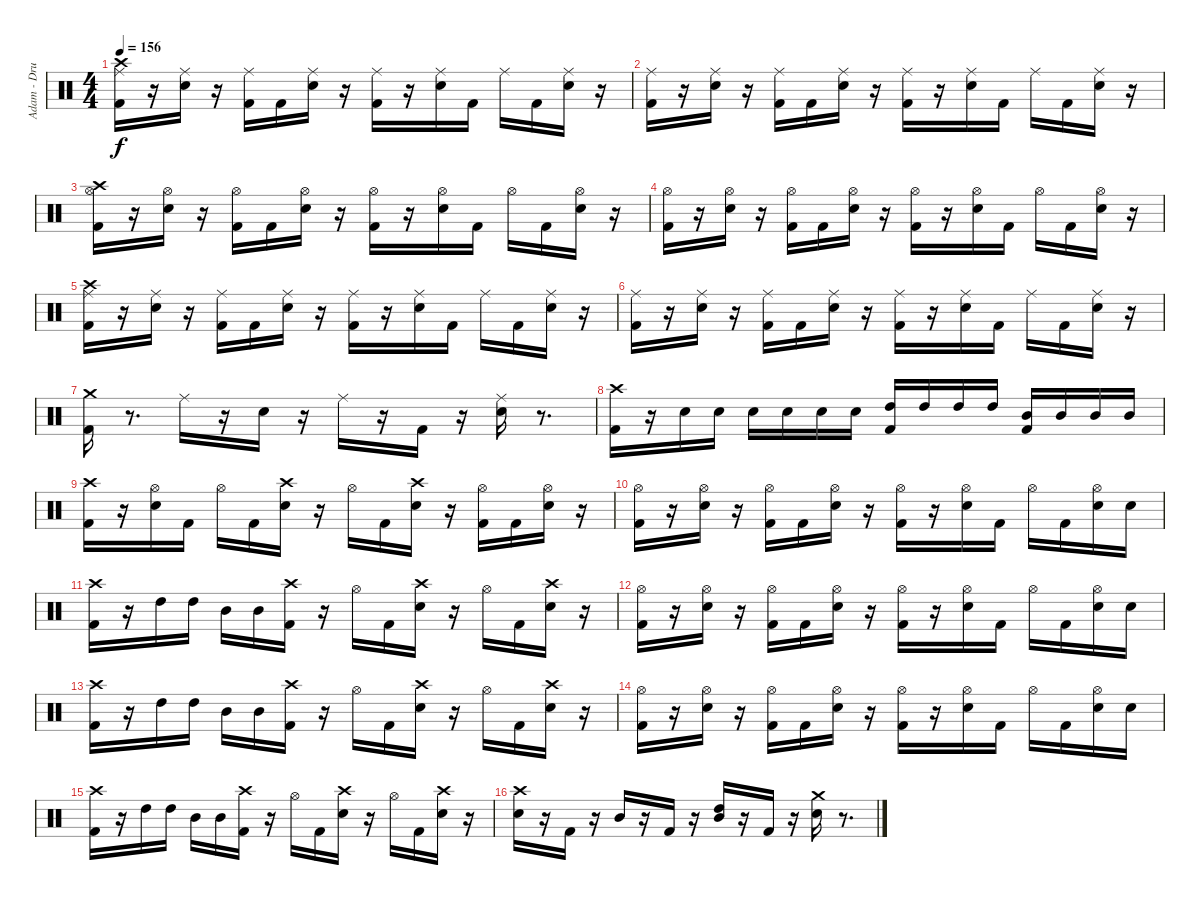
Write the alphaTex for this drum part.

\track ("Adam - Drums" "Adam - Dru") {instrument percussion}
\staff {score}
\articulation defaults
\ts (4 4)
\tempo 156
\clef neutral
\ks c
("Crash high (hit)" "Kick (hit) 2" "Ride (middle)").16{dy f} r.16 ("Snare (hit) 2" "Ride (middle)").16 r.16 ("Kick (hit) 2" "Ride (middle)").16 "Kick (hit) 2".16 ("Snare (hit) 2" "Ride (middle)").16 r.16 ("Ride (middle)" "Kick (hit) 2").16 r.16 ("Snare (hit) 2" "Ride (middle)").16 "Kick (hit) 2".16 "Ride (middle)".16 "Kick (hit) 2".16 ("Snare (hit) 2" "Ride (middle)").16 r.16 |
("Kick (hit) 2" "Ride (middle)").16 r.16 ("Snare (hit) 2" "Ride (middle)").16 r.16 ("Kick (hit) 2" "Ride (middle)").16 "Kick (hit) 2".16 ("Snare (hit) 2" "Ride (middle)").16 r.16 ("Kick (hit) 2" "Ride (middle)").16 r.16 ("Snare (hit) 2" "Ride (middle)").16 "Kick (hit) 2".16 "Ride (middle)".16 "Kick (hit) 2".16 ("Snare (hit) 2" "Ride (middle)").16 r.16 |
("Hi-Hat (open)" "Crash high (hit)" "Kick (hit) 2").16 r.16 ("Hi-Hat (open)" "Snare (hit) 2").16 r.16 ("Hi-Hat (open)" "Kick (hit) 2").16 "Kick (hit) 2".16 ("Hi-Hat (open)" "Snare (hit) 2").16 r.16 ("Hi-Hat (open)" "Kick (hit) 2").16 r.16 ("Hi-Hat (open)" "Snare (hit) 2").16 "Kick (hit) 2".16 "Hi-Hat (open)".16 "Kick (hit) 2".16 ("Hi-Hat (open)" "Snare (hit) 2").16 r.16 |
("Hi-Hat (open)" "Kick (hit) 2").16 r.16 ("Hi-Hat (open)" "Snare (hit) 2").16 r.16 ("Hi-Hat (open)" "Kick (hit) 2").16 "Kick (hit) 2".16 ("Hi-Hat (open)" "Snare (hit) 2").16 r.16 ("Hi-Hat (open)" "Kick (hit) 2").16 r.16 ("Hi-Hat (open)" "Snare (hit) 2").16 "Kick (hit) 2".16 "Hi-Hat (open)".16 "Kick (hit) 2".16 ("Hi-Hat (open)" "Snare (hit) 2").16 r.16 |
("Crash high (hit)" "Kick (hit) 2" "Ride (middle)").16 r.16 ("Snare (hit) 2" "Ride (middle)").16 r.16 ("Kick (hit) 2" "Ride (middle)").16 "Kick (hit) 2".16 ("Snare (hit) 2" "Ride (middle)").16 r.16 ("Ride (middle)" "Kick (hit) 2").16 r.16 ("Snare (hit) 2" "Ride (middle)").16 "Kick (hit) 2".16 "Ride (middle)".16 "Kick (hit) 2".16 ("Snare (hit) 2" "Ride (middle)").16 r.16 |
("Kick (hit) 2" "Ride (middle)").16 r.16 ("Snare (hit) 2" "Ride (middle)").16 r.16 ("Kick (hit) 2" "Ride (middle)").16 "Kick (hit) 2".16 ("Snare (hit) 2" "Ride (middle)").16 r.16 ("Kick (hit) 2" "Ride (middle)").16 r.16 ("Snare (hit) 2" "Ride (middle)").16 "Kick (hit) 2".16 "Ride (middle)".16 "Kick (hit) 2".16 ("Snare (hit) 2" "Ride (middle)").16 r.16 |
("Crash medium (hit)" "Kick (hit) 2").16 r.8{d} "Ride (middle)".16 r.16 "Snare (hit) 2".16 r.16 "Ride (middle)".16 r.16 "Kick (hit) 2".16 r.16 ("Snare (hit) 2" "Ride (middle)").16 r.8{d} |
("Crash high (hit)" "Kick (hit) 2").16 r.16 "Snare (hit) 2".16 "Snare (hit) 2".16 "Snare (hit) 2".16 "Snare (hit) 2".16 "Snare (hit) 2".16 "Snare (hit) 2".16 ("Kick (hit) 2" "High Tom (hit)").16 "High Tom (hit)".16 "High Tom (hit)".16 "High Tom (hit)".16 ("Mid Tom (hit)" "Kick (hit) 2").16 "Mid Tom (hit)".16 "Mid Tom (hit)".16 "Mid Tom (hit)".16 |
("Crash high (hit)" "Kick (hit) 2").16 r.16 ("Snare (hit) 2" "Hi-Hat (open)").16 "Kick (hit) 2".16 "Hi-Hat (open)".16 "Kick (hit) 2".16 ("Crash high (hit)" "Snare (hit) 2").16 r.16 "Hi-Hat (open)".16 "Kick (hit) 2".16 ("Snare (hit) 2" "Crash high (hit)").16 r.16 ("Kick (hit) 2" "Hi-Hat (open)").16 "Kick (hit) 2".16 ("Snare (hit) 2" "Hi-Hat (open)").16 r.16 |
("Kick (hit) 2" "Hi-Hat (open)").16 r.16 ("Hi-Hat (open)" "Snare (hit) 2").16 r.16 ("Hi-Hat (open)" "Kick (hit) 2").16 "Kick (hit) 2".16 ("Hi-Hat (open)" "Snare (hit) 2").16 r.16 ("Hi-Hat (open)" "Kick (hit) 2").16 r.16 ("Hi-Hat (open)" "Snare (hit) 2").16 "Kick (hit) 2".16 "Hi-Hat (open)".16 "Kick (hit) 2".16 ("Hi-Hat (open)" "Snare (hit) 2").16 "Snare (hit) 2".16 |
("Kick (hit) 2" "Crash high (hit)").16 r.16 "High Tom (hit)".16 "High Tom (hit)".16 "Mid Tom (hit)".16 "Mid Tom (hit)".16 ("Crash high (hit)" "Kick (hit) 2").16 r.16 "Hi-Hat (open)".16 "Kick (hit) 2".16 ("Crash high (hit)" "Snare (hit) 2").16 r.16 "Hi-Hat (open)".16 "Kick (hit) 2".16 ("Snare (hit) 2" "Crash high (hit)").16 r.16 |
("Kick (hit) 2" "Hi-Hat (open)").16 r.16 ("Hi-Hat (open)" "Snare (hit) 2").16 r.16 ("Hi-Hat (open)" "Kick (hit) 2").16 "Kick (hit) 2".16 ("Hi-Hat (open)" "Snare (hit) 2").16 r.16 ("Hi-Hat (open)" "Kick (hit) 2").16 r.16 ("Hi-Hat (open)" "Snare (hit) 2").16 "Kick (hit) 2".16 "Hi-Hat (open)".16 "Kick (hit) 2".16 ("Hi-Hat (open)" "Snare (hit) 2").16 "Snare (hit) 2".16 |
("Kick (hit) 2" "Crash high (hit)").16 r.16 "High Tom (hit)".16 "High Tom (hit)".16 "Mid Tom (hit)".16 "Mid Tom (hit)".16 ("Crash high (hit)" "Kick (hit) 2").16 r.16 "Hi-Hat (open)".16 "Kick (hit) 2".16 ("Crash high (hit)" "Snare (hit) 2").16 r.16 "Hi-Hat (open)".16 "Kick (hit) 2".16 ("Snare (hit) 2" "Crash high (hit)").16 r.16 |
("Kick (hit) 2" "Hi-Hat (open)").16 r.16 ("Hi-Hat (open)" "Snare (hit) 2").16 r.16 ("Hi-Hat (open)" "Kick (hit) 2").16 "Kick (hit) 2".16 ("Hi-Hat (open)" "Snare (hit) 2").16 r.16 ("Hi-Hat (open)" "Kick (hit) 2").16 r.16 ("Hi-Hat (open)" "Snare (hit) 2").16 "Kick (hit) 2".16 "Hi-Hat (open)".16 "Kick (hit) 2".16 ("Hi-Hat (open)" "Snare (hit) 2").16 "Snare (hit) 2".16 |
("Kick (hit) 2" "Crash high (hit)").16 r.16 "High Tom (hit)".16 "High Tom (hit)".16 "Mid Tom (hit)".16 "Mid Tom (hit)".16 ("Crash high (hit)" "Kick (hit) 2").16 r.16 "Hi-Hat (open)".16 "Kick (hit) 2".16 ("Crash high (hit)" "Snare (hit) 2").16 r.16 "Hi-Hat (open)".16 "Kick (hit) 2".16 ("Snare (hit) 2" "Crash high (hit)").16 r.16 |
("Crash high (hit)" "Snare (hit) 2").16 r.16 "Kick (hit) 2".16 r.16 "Mid Tom (hit)".16 r.16 "Kick (hit) 2".16 r.16 ("Mid Tom (hit)" "High Tom (hit)").16 r.16 "Kick (hit) 2".16 r.16 ("Snare (hit) 2" "Crash medium (hit)").16 r.8{d}
